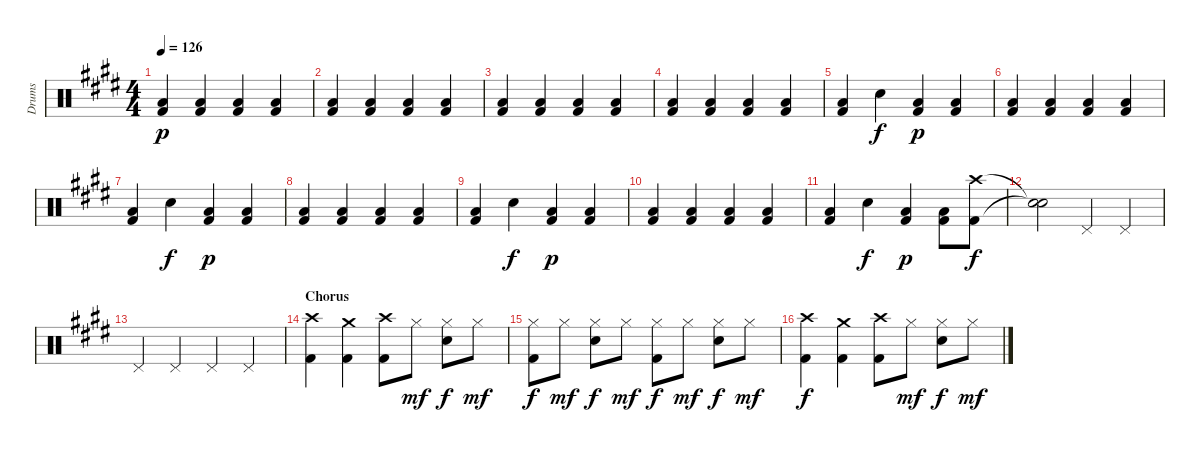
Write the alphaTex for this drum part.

\track ("Drums" "Drums") {instrument percussion}
\staff {score}
\articulation defaults
\ts (4 4)
\tempo 126
\clef neutral
\ks e
("Low Tom (hit)" "Kick (hit) 2").4{dy p} ("Low Tom (hit)" "Kick (hit) 2").4 ("Low Tom (hit)" "Kick (hit) 2").4 ("Low Tom (hit)" "Kick (hit) 2").4 |
("Low Tom (hit)" "Kick (hit) 2").4 ("Low Tom (hit)" "Kick (hit) 2").4 ("Low Tom (hit)" "Kick (hit) 2").4 ("Low Tom (hit)" "Kick (hit) 2").4 |
("Low Tom (hit)" "Kick (hit) 2").4 ("Low Tom (hit)" "Kick (hit) 2").4 ("Low Tom (hit)" "Kick (hit) 2").4 ("Low Tom (hit)" "Kick (hit) 2").4 |
("Low Tom (hit)" "Kick (hit) 2").4 ("Low Tom (hit)" "Kick (hit) 2").4 ("Low Tom (hit)" "Kick (hit) 2").4 ("Low Tom (hit)" "Kick (hit) 2").4 |
("Low Tom (hit)" "Kick (hit) 2").4 "Snare (hit) 2".4{dy f} ("Low Tom (hit)" "Kick (hit) 2").4{dy p} ("Low Tom (hit)" "Kick (hit) 2").4 |
("Low Tom (hit)" "Kick (hit) 2").4 ("Low Tom (hit)" "Kick (hit) 2").4 ("Low Tom (hit)" "Kick (hit) 2").4 ("Low Tom (hit)" "Kick (hit) 2").4 |
("Low Tom (hit)" "Kick (hit) 2").4 "Snare (hit) 2".4{dy f} ("Low Tom (hit)" "Kick (hit) 2").4{dy p} ("Low Tom (hit)" "Kick (hit) 2").4 |
("Low Tom (hit)" "Kick (hit) 2").4 ("Low Tom (hit)" "Kick (hit) 2").4 ("Low Tom (hit)" "Kick (hit) 2").4 ("Low Tom (hit)" "Kick (hit) 2").4 |
("Low Tom (hit)" "Kick (hit) 2").4 "Snare (hit) 2".4{dy f} ("Low Tom (hit)" "Kick (hit) 2").4{dy p} ("Low Tom (hit)" "Kick (hit) 2").4 |
("Low Tom (hit)" "Kick (hit) 2").4 ("Low Tom (hit)" "Kick (hit) 2").4 ("Low Tom (hit)" "Kick (hit) 2").4 ("Low Tom (hit)" "Kick (hit) 2").4 |
("Low Tom (hit)" "Kick (hit) 2").4 "Snare (hit) 2".4{dy f} ("Low Tom (hit)" "Kick (hit) 2").4{dy p} ("Low Tom (hit)" "Kick (hit) 2").8 ("Crash high (hit)" "Kick (hit) 2").8{dy f} |
("Snare (hit)"{t} "Snare (hit)"{t}).2 "Pedal Hi-Hat (hit)".4 "Pedal Hi-Hat (hit)".4 |
"Pedal Hi-Hat (hit)".4 "Pedal Hi-Hat (hit)".4 "Pedal Hi-Hat (hit)".4 "Pedal Hi-Hat (hit)".4 |
\section ("" "Chorus")
("Crash high (hit)" "Kick (hit) 2").4 ("Crash medium (hit)" "Kick (hit) 2").4 ("Crash high (hit)" "Kick (hit) 2").8 "Hi-Hat (closed)".8{dy mf} ("Hi-Hat (closed)" "Snare (hit) 2").8{dy f} "Hi-Hat (closed)".8{dy mf} |
("Hi-Hat (closed)" "Kick (hit) 2").8{dy f} "Hi-Hat (closed)".8{dy mf} ("Hi-Hat (closed)" "Snare (hit) 2").8{dy f} "Hi-Hat (closed)".8{dy mf} ("Hi-Hat (closed)" "Kick (hit) 2").8{dy f} "Hi-Hat (closed)".8{dy mf} ("Hi-Hat (closed)" "Snare (hit) 2").8{dy f} "Hi-Hat (closed)".8{dy mf} |
("Crash high (hit)" "Kick (hit) 2").4{dy f} ("Crash medium (hit)" "Kick (hit) 2").4 ("Crash high (hit)" "Kick (hit) 2").8 "Hi-Hat (closed)".8{dy mf} ("Hi-Hat (closed)" "Snare (hit) 2").8{dy f} "Hi-Hat (closed)".8{dy mf}
